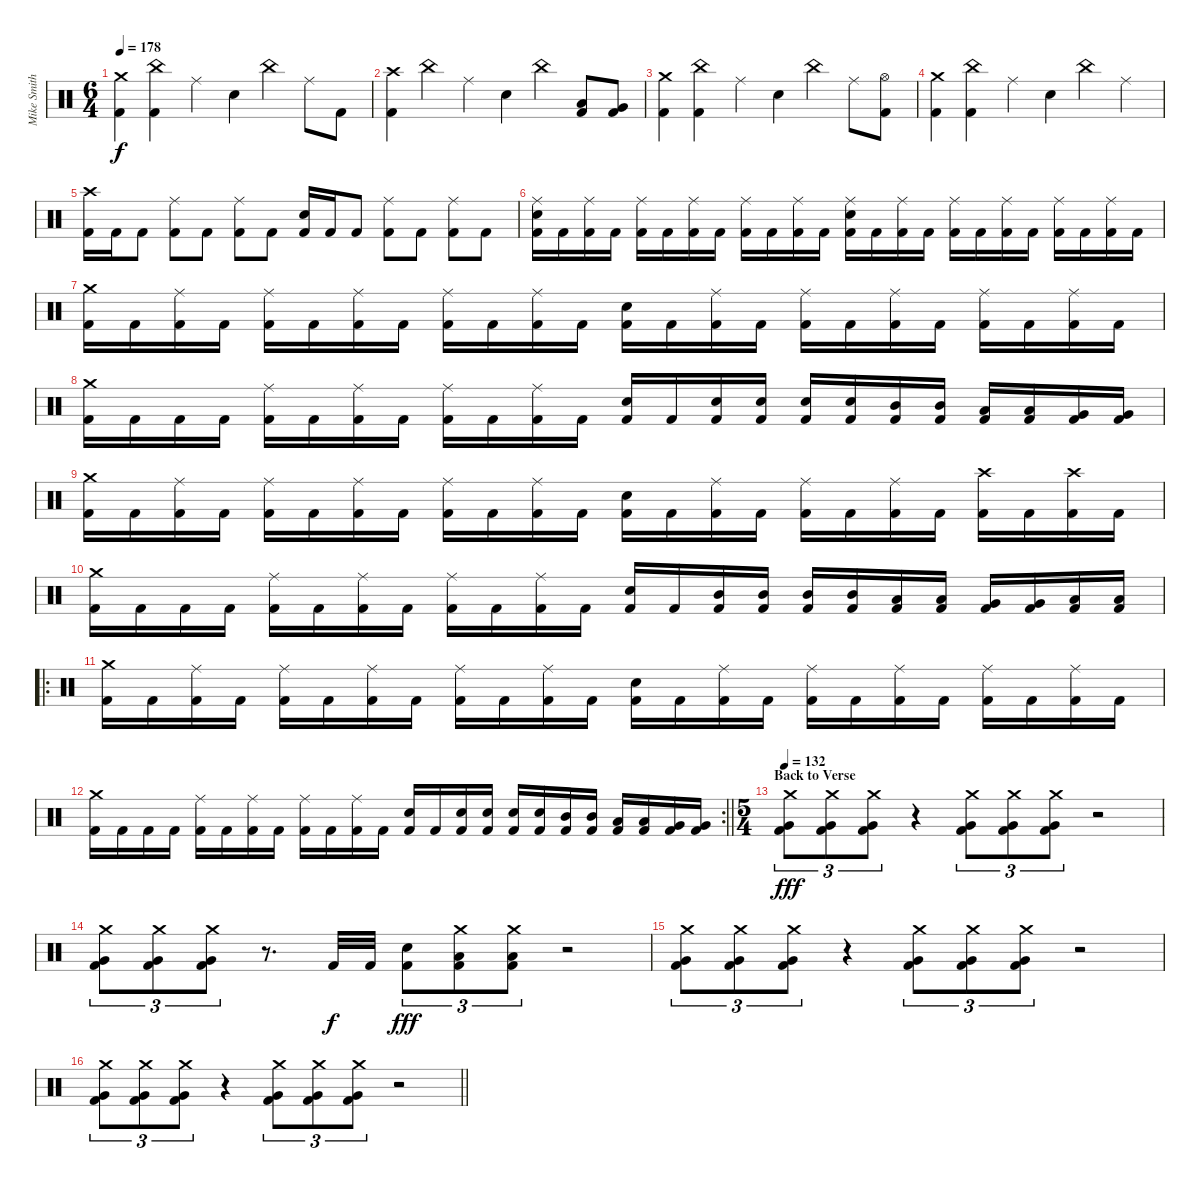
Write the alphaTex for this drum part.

\track ("Mike Smith" "Mike Smith") {instrument percussion}
\staff {score}
\articulation defaults
\ts (6 4)
\tempo 178
\clef neutral
\ks c
("Crash medium (hit)" "Kick (hit) 2").4{dy f} ("China (hit)" "Kick (hit) 2").4 "Ride (middle)".4 "Electric Snare (hit)".4 "China (hit)".4 "Ride (middle)".8 "Kick (hit) 2".8 |
("Crash high (hit)" "Kick (hit) 2").4 "China (hit)".4 "Ride (middle)".4 "Electric Snare (hit)".4 "China (hit)".4 ("Low Tom (hit)" "Kick (hit) 2").8 ("Very Low Tom (hit)" "Kick (hit) 2").8 |
("Crash medium (hit)" "Kick (hit) 2").4 ("China (hit)" "Kick (hit) 2").4 "Ride (middle)".4 "Electric Snare (hit)".4 "China (hit)".4 "Ride (middle)".8 ("Hi-Hat (open)" "Kick (hit) 2").8 |
("Crash medium (hit)" "Kick (hit) 2").4 ("China (hit)" "Kick (hit) 2").4 "Ride (middle)".4 "Electric Snare (hit)".4 "China (hit)".4 "Ride (middle)".4 |
("Crash high (hit)" "Kick (hit) 2").16 "Kick (hit) 2".16 "Kick (hit) 2".8 ("Ride (middle)" "Kick (hit) 2").8 "Kick (hit) 2".8 ("Ride (middle)" "Kick (hit) 2").8 "Kick (hit) 2".8 ("Electric Snare (hit)" "Kick (hit) 2").16 "Kick (hit) 2".16 "Kick (hit) 2".8 ("Ride (middle)" "Kick (hit) 2").8 "Kick (hit) 2".8 ("Ride (middle)" "Kick (hit) 2").8 "Kick (hit) 2".8 |
("Electric Snare (hit)" "Ride (middle)" "Kick (hit) 2").16 "Kick (hit) 2".16 ("Ride (middle)" "Kick (hit) 2").16 "Kick (hit) 2".16 ("Ride (middle)" "Kick (hit) 2").16 "Kick (hit) 2".16 ("Ride (middle)" "Kick (hit) 2").16 "Kick (hit) 2".16 ("Ride (middle)" "Kick (hit) 2").16 "Kick (hit) 2".16 ("Ride (middle)" "Kick (hit) 2").16 "Kick (hit) 2".16 ("Ride (middle)" "Electric Snare (hit)" "Kick (hit) 2").16 "Kick (hit) 2".16 ("Ride (middle)" "Kick (hit) 2").16 "Kick (hit) 2".16 ("Ride (middle)" "Kick (hit) 2").16 "Kick (hit) 2".16 ("Ride (middle)" "Kick (hit) 2").16 "Kick (hit) 2".16 ("Ride (middle)" "Kick (hit) 2").16 "Kick (hit) 2".16 ("Ride (middle)" "Kick (hit) 2").16 "Kick (hit) 2".16 |
("Crash medium (hit)" "Kick (hit) 2").16 "Kick (hit) 2".16 ("Ride (middle)" "Kick (hit) 2").16 "Kick (hit) 2".16 ("Ride (middle)" "Kick (hit) 2").16 "Kick (hit) 2".16 ("Ride (middle)" "Kick (hit) 2").16 "Kick (hit) 2".16 ("Ride (middle)" "Kick (hit) 2").16 "Kick (hit) 2".16 ("Ride (middle)" "Kick (hit) 2").16 "Kick (hit) 2".16 ("Electric Snare (hit)" "Kick (hit) 2").16 "Kick (hit) 2".16 ("Ride (middle)" "Kick (hit) 2").16 "Kick (hit) 2".16 ("Ride (middle)" "Kick (hit) 2").16 "Kick (hit) 2".16 ("Ride (middle)" "Kick (hit) 2").16 "Kick (hit) 2".16 ("Ride (middle)" "Kick (hit) 2").16 "Kick (hit) 2".16 ("Ride (middle)" "Kick (hit) 2").16 "Kick (hit) 2".16 |
("Crash medium (hit)" "Kick (hit) 2").16 "Kick (hit) 2".16 "Kick (hit) 2".16 "Kick (hit) 2".16 ("Ride (middle)" "Kick (hit) 2").16 "Kick (hit) 2".16 ("Ride (middle)" "Kick (hit) 2").16 "Kick (hit) 2".16 ("Ride (middle)" "Kick (hit) 2").16 "Kick (hit) 2".16 ("Ride (middle)" "Kick (hit) 2").16 "Kick (hit) 2".16 ("Electric Snare (hit)" "Kick (hit) 2").16 "Kick (hit) 2".16 ("Electric Snare (hit)" "Kick (hit) 2").16 ("Electric Snare (hit)" "Kick (hit) 2").16 ("Electric Snare (hit)" "Kick (hit) 2").16 ("Electric Snare (hit)" "Kick (hit) 2").16 ("Mid Tom (hit)" "Kick (hit) 2").16 ("Mid Tom (hit)" "Kick (hit) 2").16 ("Low Tom (hit)" "Kick (hit) 2").16 ("Low Tom (hit)" "Kick (hit) 2").16 ("Very Low Tom (hit)" "Kick (hit) 2").16 ("Very Low Tom (hit)" "Kick (hit) 2").16 |
("Crash medium (hit)" "Kick (hit) 2").16 "Kick (hit) 2".16 ("Ride (middle)" "Kick (hit) 2").16 "Kick (hit) 2".16 ("Ride (middle)" "Kick (hit) 2").16 "Kick (hit) 2".16 ("Ride (middle)" "Kick (hit) 2").16 "Kick (hit) 2".16 ("Ride (middle)" "Kick (hit) 2").16 "Kick (hit) 2".16 ("Ride (middle)" "Kick (hit) 2").16 "Kick (hit) 2".16 ("Electric Snare (hit)" "Kick (hit) 2").16 "Kick (hit) 2".16 ("Ride (middle)" "Kick (hit) 2").16 "Kick (hit) 2".16 ("Ride (middle)" "Kick (hit) 2").16 "Kick (hit) 2".16 ("Ride (middle)" "Kick (hit) 2").16 "Kick (hit) 2".16 ("Crash high (hit)" "Kick (hit) 2").16 "Kick (hit) 2".16 ("Crash high (hit)" "Kick (hit) 2").16 "Kick (hit) 2".16 |
("Crash medium (hit)" "Kick (hit) 2").16 "Kick (hit) 2".16 "Kick (hit) 2".16 "Kick (hit) 2".16 ("Ride (middle)" "Kick (hit) 2").16 "Kick (hit) 2".16 ("Ride (middle)" "Kick (hit) 2").16 "Kick (hit) 2".16 ("Ride (middle)" "Kick (hit) 2").16 "Kick (hit) 2".16 ("Ride (middle)" "Kick (hit) 2").16 "Kick (hit) 2".16 ("Electric Snare (hit)" "Kick (hit) 2").16 "Kick (hit) 2".16 ("Mid Tom (hit)" "Kick (hit) 2").16 ("Mid Tom (hit)" "Kick (hit) 2").16 ("Mid Tom (hit)" "Kick (hit) 2").16 ("Mid Tom (hit)" "Kick (hit) 2").16 ("Low Tom (hit)" "Kick (hit) 2").16 ("Low Tom (hit)" "Kick (hit) 2").16 ("Very Low Tom (hit)" "Kick (hit) 2").16 ("Very Low Tom (hit)" "Kick (hit) 2").16 ("Low Floor Tom (hit)" "Kick (hit) 2").16 ("Low Floor Tom (hit)" "Kick (hit) 2").16 |
\ro
("Crash medium (hit)" "Kick (hit) 2").16 "Kick (hit) 2".16 ("Ride (middle)" "Kick (hit) 2").16 "Kick (hit) 2".16 ("Ride (middle)" "Kick (hit) 2").16 "Kick (hit) 2".16 ("Ride (middle)" "Kick (hit) 2").16 "Kick (hit) 2".16 ("Ride (middle)" "Kick (hit) 2").16 "Kick (hit) 2".16 ("Ride (middle)" "Kick (hit) 2").16 "Kick (hit) 2".16 ("Electric Snare (hit)" "Kick (hit) 2").16 "Kick (hit) 2".16 ("Ride (middle)" "Kick (hit) 2").16 "Kick (hit) 2".16 ("Ride (middle)" "Kick (hit) 2").16 "Kick (hit) 2".16 ("Ride (middle)" "Kick (hit) 2").16 "Kick (hit) 2".16 ("Ride (middle)" "Kick (hit) 2").16 "Kick (hit) 2".16 ("Ride (middle)" "Kick (hit) 2").16 "Kick (hit) 2".16 |
\rc 2
\barLineRight lightlight
("Crash medium (hit)" "Kick (hit) 2").16 "Kick (hit) 2".16 "Kick (hit) 2".16 "Kick (hit) 2".16 ("Ride (middle)" "Kick (hit) 2").16 "Kick (hit) 2".16 ("Ride (middle)" "Kick (hit) 2").16 "Kick (hit) 2".16 ("Ride (middle)" "Kick (hit) 2").16 "Kick (hit) 2".16 ("Ride (middle)" "Kick (hit) 2").16 "Kick (hit) 2".16 ("Electric Snare (hit)" "Kick (hit) 2").16 "Kick (hit) 2".16 ("Electric Snare (hit)" "Kick (hit) 2").16 ("Electric Snare (hit)" "Kick (hit) 2").16 ("Electric Snare (hit)" "Kick (hit) 2").16 ("Electric Snare (hit)" "Kick (hit) 2").16 ("Mid Tom (hit)" "Kick (hit) 2").16 ("Mid Tom (hit)" "Kick (hit) 2").16 ("Low Tom (hit)" "Kick (hit) 2").16 ("Low Tom (hit)" "Kick (hit) 2").16 ("Very Low Tom (hit)" "Kick (hit) 2").16 ("Very Low Tom (hit)" "Kick (hit) 2").16 |
\ts (5 4)
\section ("" "Back to Verse")
\tempo 132
("Kick (hit) 2" "Very Low Tom (hit)" "Crash medium (hit)").8{tu (3 2) dy fff} ("Kick (hit) 2" "Very Low Tom (hit)" "Crash medium (hit)").8{tu (3 2)} ("Kick (hit) 2" "Very Low Tom (hit)" "Crash medium (hit)").8{tu (3 2)} r.4 ("Kick (hit) 2" "Very Low Tom (hit)" "Crash medium (hit)").8{tu (3 2)} ("Kick (hit) 2" "Very Low Tom (hit)" "Crash medium (hit)").8{tu (3 2)} ("Kick (hit) 2" "Very Low Tom (hit)" "Crash medium (hit)").8{tu (3 2)} r.2 |
("Kick (hit) 2" "Very Low Tom (hit)" "Crash medium (hit)").8{tu (3 2)} ("Kick (hit) 2" "Very Low Tom (hit)" "Crash medium (hit)").8{tu (3 2)} ("Kick (hit) 2" "Very Low Tom (hit)" "Crash medium (hit)").8{tu (3 2)} r.8{d} "Kick (hit) 2".32{dy f} "Kick (hit) 2".32 ("Kick (hit) 2" "Electric Snare (hit)").8{tu (3 2) dy fff} ("Kick (hit) 2" "Crash medium (hit)" "Low Floor Tom (hit)").8{tu (3 2)} ("Kick (hit) 2" "Crash medium (hit)" "Low Floor Tom (hit)").8{tu (3 2)} r.2 |
("Kick (hit) 2" "Very Low Tom (hit)" "Crash medium (hit)").8{tu (3 2)} ("Kick (hit) 2" "Very Low Tom (hit)" "Crash medium (hit)").8{tu (3 2)} ("Kick (hit) 2" "Very Low Tom (hit)" "Crash medium (hit)").8{tu (3 2)} r.4 ("Kick (hit) 2" "Very Low Tom (hit)" "Crash medium (hit)").8{tu (3 2)} ("Kick (hit) 2" "Very Low Tom (hit)" "Crash medium (hit)").8{tu (3 2)} ("Kick (hit) 2" "Very Low Tom (hit)" "Crash medium (hit)").8{tu (3 2)} r.2 |
\barLineRight lightlight
("Kick (hit) 2" "Very Low Tom (hit)" "Crash medium (hit)").8{tu (3 2)} ("Kick (hit) 2" "Very Low Tom (hit)" "Crash medium (hit)").8{tu (3 2)} ("Kick (hit) 2" "Very Low Tom (hit)" "Crash medium (hit)").8{tu (3 2)} r.4 ("Kick (hit) 2" "Very Low Tom (hit)" "Crash medium (hit)").8{tu (3 2)} ("Kick (hit) 2" "Very Low Tom (hit)" "Crash medium (hit)").8{tu (3 2)} ("Kick (hit) 2" "Very Low Tom (hit)" "Crash medium (hit)").8{tu (3 2)} r.2
